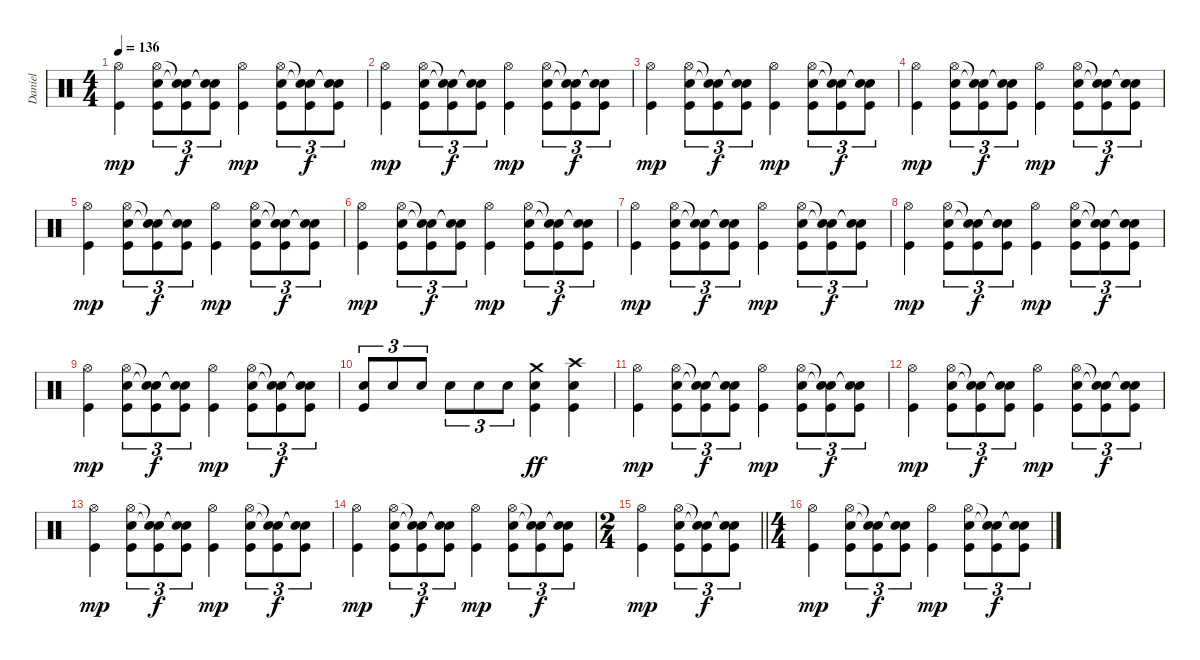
\track ("Daniel" "Daniel") {instrument percussion}
\staff {score}
\articulation defaults
\ts (4 4)
\tempo 136
\clef neutral
\ks c
("Hi-Hat (open)" "Kick (hit)").4{dy mp} ("Hi-Hat (open)" "Snare (hit) 2" "Kick (hit)").8{tu (3 2)} ("Snare (hit)"{t} "Snare (hit)"{t} "Kick (hit)").8{tu (3 2) dy f} ("Snare (hit)"{t} "Snare (hit)"{t} "Kick (hit)").8{tu (3 2)} ("Hi-Hat (open)" "Kick (hit)").4{dy mp} ("Hi-Hat (open)" "Snare (hit) 2" "Kick (hit)").8{tu (3 2)} ("Snare (hit)"{t} "Snare (hit)"{t} "Kick (hit)").8{tu (3 2) dy f} ("Snare (hit)"{t} "Snare (hit)"{t} "Kick (hit)").8{tu (3 2)} |
("Hi-Hat (open)" "Kick (hit)").4{dy mp} ("Hi-Hat (open)" "Snare (hit) 2" "Kick (hit)").8{tu (3 2)} ("Snare (hit)"{t} "Snare (hit)"{t} "Kick (hit)").8{tu (3 2) dy f} ("Snare (hit)"{t} "Snare (hit)"{t} "Kick (hit)").8{tu (3 2)} ("Hi-Hat (open)" "Kick (hit)").4{dy mp} ("Hi-Hat (open)" "Snare (hit) 2" "Kick (hit)").8{tu (3 2)} ("Snare (hit)"{t} "Snare (hit)"{t} "Kick (hit)").8{tu (3 2) dy f} ("Snare (hit)"{t} "Snare (hit)"{t} "Kick (hit)").8{tu (3 2)} |
("Hi-Hat (open)" "Kick (hit)").4{dy mp} ("Hi-Hat (open)" "Snare (hit) 2" "Kick (hit)").8{tu (3 2)} ("Snare (hit)"{t} "Snare (hit)"{t} "Kick (hit)").8{tu (3 2) dy f} ("Snare (hit)"{t} "Snare (hit)"{t} "Kick (hit)").8{tu (3 2)} ("Hi-Hat (open)" "Kick (hit)").4{dy mp} ("Hi-Hat (open)" "Snare (hit) 2" "Kick (hit)").8{tu (3 2)} ("Snare (hit)"{t} "Snare (hit)"{t} "Kick (hit)").8{tu (3 2) dy f} ("Snare (hit)"{t} "Snare (hit)"{t} "Kick (hit)").8{tu (3 2)} |
("Hi-Hat (open)" "Kick (hit)").4{dy mp} ("Hi-Hat (open)" "Snare (hit) 2" "Kick (hit)").8{tu (3 2)} ("Snare (hit)"{t} "Snare (hit)"{t} "Kick (hit)").8{tu (3 2) dy f} ("Snare (hit)"{t} "Snare (hit)"{t} "Kick (hit)").8{tu (3 2)} ("Hi-Hat (open)" "Kick (hit)").4{dy mp} ("Hi-Hat (open)" "Snare (hit) 2" "Kick (hit)").8{tu (3 2)} ("Snare (hit)"{t} "Snare (hit)"{t} "Kick (hit)").8{tu (3 2) dy f} ("Snare (hit)"{t} "Snare (hit)"{t} "Kick (hit)").8{tu (3 2)} |
("Hi-Hat (open)" "Kick (hit)").4{dy mp} ("Hi-Hat (open)" "Snare (hit) 2" "Kick (hit)").8{tu (3 2)} ("Snare (hit)"{t} "Snare (hit)"{t} "Kick (hit)").8{tu (3 2) dy f} ("Snare (hit)"{t} "Snare (hit)"{t} "Kick (hit)").8{tu (3 2)} ("Hi-Hat (open)" "Kick (hit)").4{dy mp} ("Hi-Hat (open)" "Snare (hit) 2" "Kick (hit)").8{tu (3 2)} ("Snare (hit)"{t} "Snare (hit)"{t} "Kick (hit)").8{tu (3 2) dy f} ("Snare (hit)"{t} "Snare (hit)"{t} "Kick (hit)").8{tu (3 2)} |
("Hi-Hat (open)" "Kick (hit)").4{dy mp} ("Hi-Hat (open)" "Snare (hit) 2" "Kick (hit)").8{tu (3 2)} ("Snare (hit)"{t} "Snare (hit)"{t} "Kick (hit)").8{tu (3 2) dy f} ("Snare (hit)"{t} "Snare (hit)"{t} "Kick (hit)").8{tu (3 2)} ("Hi-Hat (open)" "Kick (hit)").4{dy mp} ("Hi-Hat (open)" "Snare (hit) 2" "Kick (hit)").8{tu (3 2)} ("Snare (hit)"{t} "Snare (hit)"{t} "Kick (hit)").8{tu (3 2) dy f} ("Snare (hit)"{t} "Snare (hit)"{t} "Kick (hit)").8{tu (3 2)} |
("Hi-Hat (open)" "Kick (hit)").4{dy mp} ("Hi-Hat (open)" "Snare (hit) 2" "Kick (hit)").8{tu (3 2)} ("Snare (hit)"{t} "Snare (hit)"{t} "Kick (hit)").8{tu (3 2) dy f} ("Snare (hit)"{t} "Snare (hit)"{t} "Kick (hit)").8{tu (3 2)} ("Hi-Hat (open)" "Kick (hit)").4{dy mp} ("Hi-Hat (open)" "Snare (hit) 2" "Kick (hit)").8{tu (3 2)} ("Snare (hit)"{t} "Snare (hit)"{t} "Kick (hit)").8{tu (3 2) dy f} ("Snare (hit)"{t} "Snare (hit)"{t} "Kick (hit)").8{tu (3 2)} |
("Hi-Hat (open)" "Kick (hit)").4{dy mp} ("Hi-Hat (open)" "Snare (hit) 2" "Kick (hit)").8{tu (3 2)} ("Snare (hit)"{t} "Snare (hit)"{t} "Kick (hit)").8{tu (3 2) dy f} ("Snare (hit)"{t} "Snare (hit)"{t} "Kick (hit)").8{tu (3 2)} ("Hi-Hat (open)" "Kick (hit)").4{dy mp} ("Hi-Hat (open)" "Snare (hit) 2" "Kick (hit)").8{tu (3 2)} ("Snare (hit)"{t} "Snare (hit)"{t} "Kick (hit)").8{tu (3 2) dy f} ("Snare (hit)"{t} "Snare (hit)"{t} "Kick (hit)").8{tu (3 2)} |
("Hi-Hat (open)" "Kick (hit)").4{dy mp} ("Hi-Hat (open)" "Snare (hit) 2" "Kick (hit)").8{tu (3 2)} ("Snare (hit)"{t} "Snare (hit)"{t} "Kick (hit)").8{tu (3 2) dy f} ("Snare (hit)"{t} "Snare (hit)"{t} "Kick (hit)").8{tu (3 2)} ("Hi-Hat (open)" "Kick (hit)").4{dy mp} ("Hi-Hat (open)" "Snare (hit) 2" "Kick (hit)").8{tu (3 2)} ("Snare (hit)"{t} "Snare (hit)"{t} "Kick (hit)").8{tu (3 2) dy f} ("Snare (hit)"{t} "Snare (hit)"{t} "Kick (hit)").8{tu (3 2)} |
("Snare (hit) 2" "Kick (hit)").8{tu (3 2)} "Snare (hit) 2".8{tu (3 2)} "Snare (hit) 2".8{tu (3 2)} "Snare (hit) 2".8{tu (3 2)} "Snare (hit) 2".8{tu (3 2)} "Snare (hit) 2".8{tu (3 2)} ("Crash medium (hit)" "Snare (hit) 2" "Kick (hit)").4{dy ff} ("Crash high (hit)" "Snare (hit) 2" "Kick (hit)").4 |
("Hi-Hat (open)" "Kick (hit)").4{dy mp} ("Hi-Hat (open)" "Snare (hit) 2" "Kick (hit)").8{tu (3 2)} ("Snare (hit)"{t} "Snare (hit)"{t} "Kick (hit)").8{tu (3 2) dy f} ("Snare (hit)"{t} "Snare (hit)"{t} "Kick (hit)").8{tu (3 2)} ("Hi-Hat (open)" "Kick (hit)").4{dy mp} ("Hi-Hat (open)" "Snare (hit) 2" "Kick (hit)").8{tu (3 2)} ("Snare (hit)"{t} "Snare (hit)"{t} "Kick (hit)").8{tu (3 2) dy f} ("Snare (hit)"{t} "Snare (hit)"{t} "Kick (hit)").8{tu (3 2)} |
("Hi-Hat (open)" "Kick (hit)").4{dy mp} ("Hi-Hat (open)" "Snare (hit) 2" "Kick (hit)").8{tu (3 2)} ("Snare (hit)"{t} "Snare (hit)"{t} "Kick (hit)").8{tu (3 2) dy f} ("Snare (hit)"{t} "Snare (hit)"{t} "Kick (hit)").8{tu (3 2)} ("Hi-Hat (open)" "Kick (hit)").4{dy mp} ("Hi-Hat (open)" "Snare (hit) 2" "Kick (hit)").8{tu (3 2)} ("Snare (hit)"{t} "Snare (hit)"{t} "Kick (hit)").8{tu (3 2) dy f} ("Snare (hit)"{t} "Snare (hit)"{t} "Kick (hit)").8{tu (3 2)} |
("Hi-Hat (open)" "Kick (hit)").4{dy mp} ("Hi-Hat (open)" "Snare (hit) 2" "Kick (hit)").8{tu (3 2)} ("Snare (hit)"{t} "Snare (hit)"{t} "Kick (hit)").8{tu (3 2) dy f} ("Snare (hit)"{t} "Snare (hit)"{t} "Kick (hit)").8{tu (3 2)} ("Hi-Hat (open)" "Kick (hit)").4{dy mp} ("Hi-Hat (open)" "Snare (hit) 2" "Kick (hit)").8{tu (3 2)} ("Snare (hit)"{t} "Snare (hit)"{t} "Kick (hit)").8{tu (3 2) dy f} ("Snare (hit)"{t} "Snare (hit)"{t} "Kick (hit)").8{tu (3 2)} |
("Hi-Hat (open)" "Kick (hit)").4{dy mp} ("Hi-Hat (open)" "Snare (hit) 2" "Kick (hit)").8{tu (3 2)} ("Snare (hit)"{t} "Snare (hit)"{t} "Kick (hit)").8{tu (3 2) dy f} ("Snare (hit)"{t} "Snare (hit)"{t} "Kick (hit)").8{tu (3 2)} ("Hi-Hat (open)" "Kick (hit)").4{dy mp} ("Hi-Hat (open)" "Snare (hit) 2" "Kick (hit)").8{tu (3 2)} ("Snare (hit)"{t} "Snare (hit)"{t} "Kick (hit)").8{tu (3 2) dy f} ("Snare (hit)"{t} "Snare (hit)"{t} "Kick (hit)").8{tu (3 2)} |
\ts (2 4)
\barLineRight lightlight
("Hi-Hat (open)" "Kick (hit)").4{dy mp} ("Hi-Hat (open)" "Snare (hit) 2" "Kick (hit)").8{tu (3 2)} ("Snare (hit)"{t} "Snare (hit)"{t} "Kick (hit)").8{tu (3 2) dy f} ("Snare (hit)"{t} "Snare (hit)"{t} "Kick (hit)").8{tu (3 2)} |
\ts (4 4)
("Hi-Hat (open)" "Kick (hit)").4{dy mp} ("Hi-Hat (open)" "Snare (hit) 2" "Kick (hit)").8{tu (3 2)} ("Snare (hit)"{t} "Snare (hit)"{t} "Kick (hit)").8{tu (3 2) dy f} ("Snare (hit)"{t} "Snare (hit)"{t} "Kick (hit)").8{tu (3 2)} ("Hi-Hat (open)" "Kick (hit)").4{dy mp} ("Hi-Hat (open)" "Snare (hit) 2" "Kick (hit)").8{tu (3 2)} ("Snare (hit)"{t} "Snare (hit)"{t} "Kick (hit)").8{tu (3 2) dy f} ("Snare (hit)"{t} "Snare (hit)"{t} "Kick (hit)").8{tu (3 2)}
